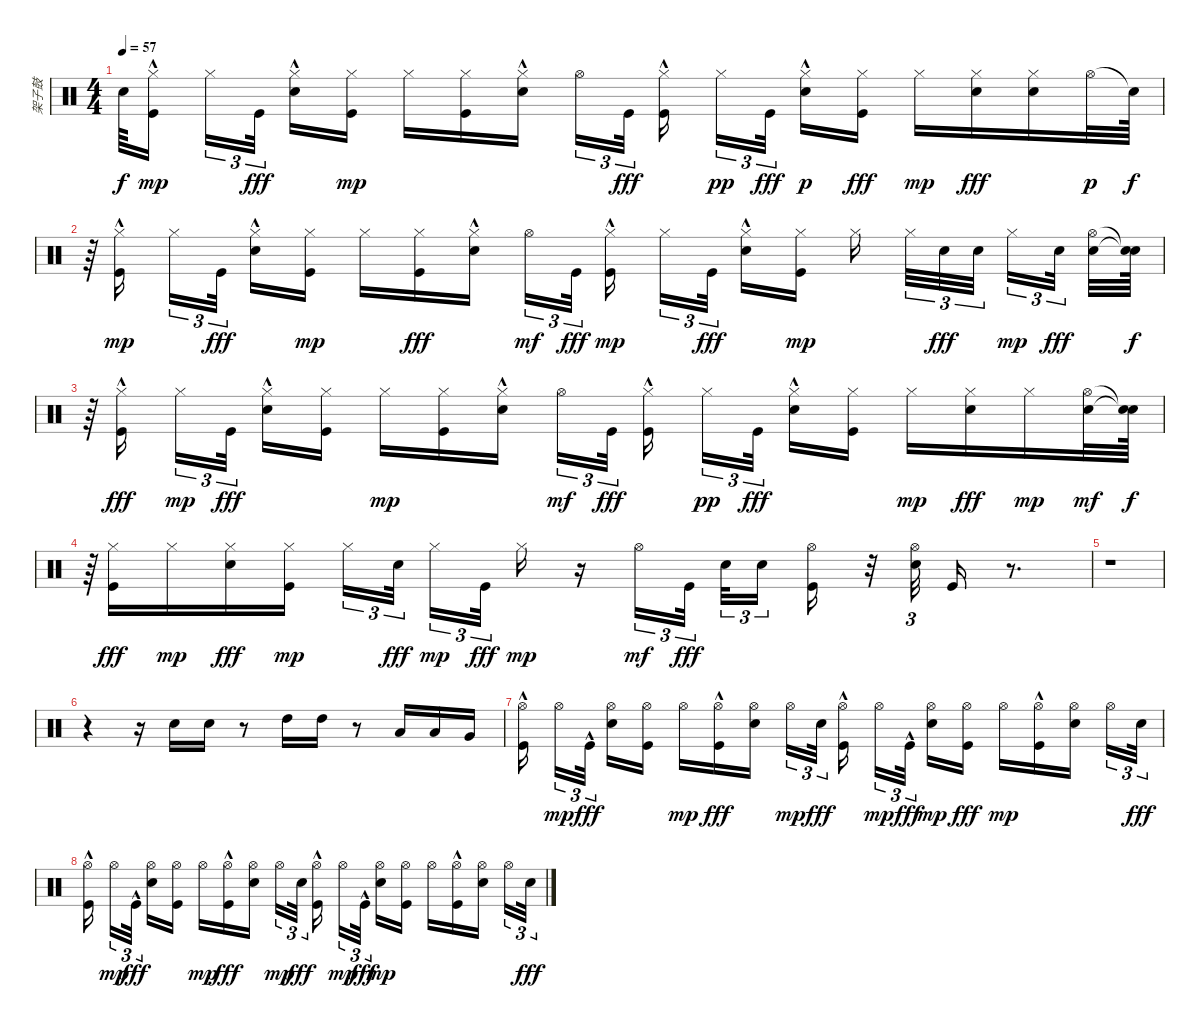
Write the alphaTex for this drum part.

\track ("架子鼓" "架子鼓") {instrument percussion}
\staff {score}
\articulation defaults
\ts (4 4)
\tempo 57
\clef neutral
\ks c "Snare (hit)"{t}.64{dy f}
("Kick (hit)"{hac} "Hi-Hat (closed)").16{dy mp} "Hi-Hat (closed)".16{tu (3 2)} "Kick (hit)".32{tu (3 2) dy fff} ("Hi-Hat (closed)" "Electric Snare (hit)"{hac}).16 ("Kick (hit)" "Hi-Hat (closed)").16{dy mp} "Hi-Hat (closed)".16 ("Kick (hit)" "Hi-Hat (closed)").16 ("Electric Snare (hit)"{hac} "Hi-Hat (closed)").16 "Hi-Hat (open)".16{tu (3 2)} "Kick (hit)".32{tu (3 2) dy fff} ("Hi-Hat (closed)" "Kick (hit)"{hac}).16 "Hi-Hat (closed)".16{tu (3 2) dy pp} "Kick (hit)".32{tu (3 2) dy fff} ("Electric Snare (hit)"{hac} "Hi-Hat (closed)").16{dy p} ("Hi-Hat (closed)" "Kick (hit)").16{dy fff} "Hi-Hat (closed)".16{dy mp} ("Hi-Hat (closed)" "Electric Snare (hit)").16{dy fff} ("Hi-Hat (closed)" "Electric Snare (hit)").16 "Hi-Hat (open)".32{dy p} "Snare (hit)"{t}.64{dy f} |
r.64 ("Kick (hit)"{hac} "Hi-Hat (closed)").16{dy mp} "Hi-Hat (closed)".16{tu (3 2)} "Kick (hit)".32{tu (3 2) dy fff} ("Hi-Hat (closed)" "Electric Snare (hit)"{hac}).16 ("Kick (hit)" "Hi-Hat (closed)").16{dy mp} "Hi-Hat (closed)".16 ("Hi-Hat (closed)" "Kick (hit)").16{dy fff} ("Hi-Hat (closed)" "Electric Snare (hit)"{hac}).16 "Hi-Hat (open)".16{tu (3 2) dy mf} "Kick (hit)".32{tu (3 2) dy fff} ("Kick (hit)"{hac} "Hi-Hat (closed)").16{dy mp} "Hi-Hat (closed)".16{tu (3 2)} "Kick (hit)".32{tu (3 2) dy fff} ("Hi-Hat (closed)" "Electric Snare (hit)"{hac}).16 ("Kick (hit)" "Hi-Hat (closed)").16{dy mp} "Hi-Hat (closed)".16 "Hi-Hat (closed)".32{tu (3 2)} "Electric Snare (hit)".32{tu (3 2) dy fff} "Electric Snare (hit)".32{tu (3 2)} "Hi-Hat (closed)".16{tu (3 2) dy mp} "Electric Snare (hit)".32{tu (3 2) dy fff} ("Hi-Hat (open)" "Electric Snare (hit)").32 ("Snare (hit)"{t} "Snare (hit)"{t}).64{dy f} |
r.64 ("Hi-Hat (closed)" "Kick (hit)"{hac}).16{dy fff} "Hi-Hat (closed)".16{tu (3 2) dy mp} "Kick (hit)".32{tu (3 2) dy fff} ("Hi-Hat (closed)" "Electric Snare (hit)"{hac}).16 ("Hi-Hat (closed)" "Kick (hit)").16 "Hi-Hat (closed)".16{dy mp} ("Kick (hit)" "Hi-Hat (closed)").16 ("Electric Snare (hit)"{hac} "Hi-Hat (closed)").16 "Hi-Hat (open)".16{tu (3 2) dy mf} "Kick (hit)".32{tu (3 2) dy fff} ("Hi-Hat (closed)" "Kick (hit)"{hac}).16 "Hi-Hat (closed)".16{tu (3 2) dy pp} "Kick (hit)".32{tu (3 2) dy fff} ("Hi-Hat (closed)" "Electric Snare (hit)"{hac}).16 ("Hi-Hat (closed)" "Kick (hit)").16 "Hi-Hat (closed)".16{dy mp} ("Hi-Hat (closed)" "Electric Snare (hit)").16{dy fff} "Hi-Hat (closed)".16{dy mp} ("Electric Snare (hit)" "Hi-Hat (open)").32{dy mf} ("Snare (hit)"{t} "Snare (hit)"{t}).64{dy f} |
r.64{tu (3 2)} ("Hi-Hat (closed)" "Kick (hit)").16{dy fff} "Hi-Hat (closed)".16{dy mp} ("Hi-Hat (closed)" "Electric Snare (hit)").16{dy fff} ("Kick (hit)" "Hi-Hat (closed)").16{dy mp} "Hi-Hat (closed)".16{tu (3 2)} "Electric Snare (hit)".32{tu (3 2) dy fff} "Hi-Hat (closed)".16{tu (3 2) dy mp} "Kick (hit)".32{tu (3 2) dy fff} "Hi-Hat (closed)".16{dy mp} r.16 "Hi-Hat (open)".16{tu (3 2) dy mf} "Kick (hit)".32{tu (3 2) dy fff} "Electric Snare (hit)".32{tu (3 2)} "Electric Snare (hit)".16{tu (3 2)} ("Hi-Hat (open)" "Kick (hit)").16 r.32 ("Hi-Hat (open)" "Electric Snare (hit)").32{tu (3 2)} "Kick (hit)".16 r.8{d} |
r.1 |
r.4 r.16 "Electric Snare (hit)".16 "Electric Snare (hit)".16 r.8 "High Tom (hit)".16 "High Tom (hit)".16 r.8 "Low Tom (hit)".16 "Low Tom (hit)".16 "Very Low Tom (hit)".16 |
("Hi-Hat (open)" "Kick (hit)"{hac}).16 "Hi-Hat (open)".16{tu (3 2) dy mp} "Kick (hit)"{hac}.32{tu (3 2) dy fff} ("Hi-Hat (open)" "Electric Snare (hit)").16 ("Hi-Hat (open)" "Kick (hit)").16 "Hi-Hat (open)".16{dy mp} ("Hi-Hat (open)" "Kick (hit)"{hac}).16{dy fff} ("Hi-Hat (open)" "Electric Snare (hit)").16 "Hi-Hat (open)".16{tu (3 2) dy mp} "Electric Snare (hit)".32{tu (3 2) dy fff} ("Hi-Hat (open)" "Kick (hit)"{hac}).16 "Hi-Hat (open)".16{tu (3 2) dy mp} "Kick (hit)"{hac}.32{tu (3 2) dy fff} ("Electric Snare (hit)" "Hi-Hat (open)").16{dy mp} ("Hi-Hat (open)" "Kick (hit)").16{dy fff} "Hi-Hat (open)".16{dy mp} ("Kick (hit)"{hac} "Hi-Hat (open)").16 ("Electric Snare (hit)" "Hi-Hat (open)").16 "Hi-Hat (open)".16{tu (3 2)} "Electric Snare (hit)".32{tu (3 2) dy fff} |
("Hi-Hat (open)" "Kick (hit)"{hac}).16 "Hi-Hat (open)".16{tu (3 2) dy mp} "Kick (hit)"{hac}.32{tu (3 2) dy fff} ("Hi-Hat (open)" "Electric Snare (hit)").16 ("Hi-Hat (open)" "Kick (hit)").16 "Hi-Hat (open)".16{dy mp} ("Hi-Hat (open)" "Kick (hit)"{hac}).16{dy fff} ("Hi-Hat (open)" "Electric Snare (hit)").16 "Hi-Hat (open)".16{tu (3 2) dy mp} "Electric Snare (hit)".32{tu (3 2) dy fff} ("Hi-Hat (open)" "Kick (hit)"{hac}).16 "Hi-Hat (open)".16{tu (3 2) dy mp} "Kick (hit)"{hac}.32{tu (3 2) dy fff} ("Electric Snare (hit)" "Hi-Hat (open)").16{dy mp} ("Kick (hit)" "Hi-Hat (open)").16 "Hi-Hat (open)".16 ("Kick (hit)"{hac} "Hi-Hat (open)").16 ("Electric Snare (hit)" "Hi-Hat (open)").16 "Hi-Hat (open)".16{tu (3 2)} "Electric Snare (hit)".32{tu (3 2) dy fff}
